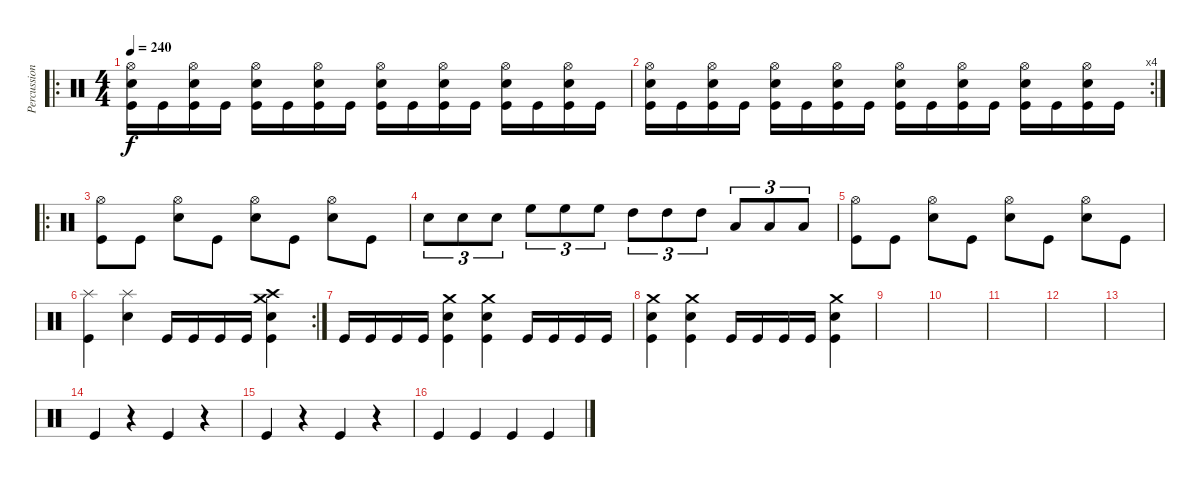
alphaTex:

\track ("Percussion" "Percussion") {instrument percussion}
\staff {score}
\articulation defaults
\ro
\ts (4 4)
\tempo 240
\clef neutral
\ks c
("Hi-Hat (open)" "Snare (hit) 2" "Kick (hit)").16{dy f} "Kick (hit)".16 ("Hi-Hat (open)" "Snare (hit) 2" "Kick (hit)").16 "Kick (hit)".16 ("Hi-Hat (open)" "Snare (hit) 2" "Kick (hit)").16 "Kick (hit)".16 ("Hi-Hat (open)" "Snare (hit) 2" "Kick (hit)").16 "Kick (hit)".16 ("Hi-Hat (open)" "Snare (hit) 2" "Kick (hit)").16 "Kick (hit)".16 ("Hi-Hat (open)" "Snare (hit) 2" "Kick (hit)").16 "Kick (hit)".16 ("Hi-Hat (open)" "Snare (hit) 2" "Kick (hit)").16 "Kick (hit)".16 ("Hi-Hat (open)" "Snare (hit) 2" "Kick (hit)").16 "Kick (hit)".16 |
\rc 4
("Hi-Hat (open)" "Snare (hit) 2" "Kick (hit)").16 "Kick (hit)".16 ("Hi-Hat (open)" "Snare (hit) 2" "Kick (hit)").16 "Kick (hit)".16 ("Hi-Hat (open)" "Snare (hit) 2" "Kick (hit)").16 "Kick (hit)".16 ("Hi-Hat (open)" "Snare (hit) 2" "Kick (hit)").16 "Kick (hit)".16 ("Hi-Hat (open)" "Snare (hit) 2" "Kick (hit)").16 "Kick (hit)".16 ("Hi-Hat (open)" "Snare (hit) 2" "Kick (hit)").16 "Kick (hit)".16 ("Hi-Hat (open)" "Snare (hit) 2" "Kick (hit)").16 "Kick (hit)".16 ("Hi-Hat (open)" "Snare (hit) 2" "Kick (hit)").16 "Kick (hit)".16 |
\ro
("Hi-Hat (open)" "Kick (hit)").8 "Kick (hit)".8 ("Hi-Hat (open)" "Snare (hit) 2").8 "Kick (hit)".8 ("Hi-Hat (open)" "Snare (hit) 2").8 "Kick (hit)".8 ("Hi-Hat (open)" "Snare (hit) 2").8 "Kick (hit)".8 |
"Snare (hit) 2".8{tu (3 2)} "Snare (hit) 2".8{tu (3 2)} "Snare (hit) 2".8{tu (3 2)} "High Floor Tom (hit)".8{tu (3 2)} "High Floor Tom (hit)".8{tu (3 2)} "High Floor Tom (hit)".8{tu (3 2)} "High Tom (hit)".8{tu (3 2)} "High Tom (hit)".8{tu (3 2)} "High Tom (hit)".8{tu (3 2)} "Low Tom (hit)".8{tu (3 2)} "Low Tom (hit)".8{tu (3 2)} "Low Tom (hit)".8{tu (3 2)} |
("Hi-Hat (open)" "Kick (hit)").8 "Kick (hit)".8 ("Hi-Hat (open)" "Snare (hit) 2").8 "Kick (hit)".8 ("Hi-Hat (open)" "Snare (hit) 2").8 "Kick (hit)".8 ("Hi-Hat (open)" "Snare (hit) 2").8 "Kick (hit)".8 |
\rc 2
("Splash (hit)" "Kick (hit)").4 ("Splash (hit)" "Snare (hit) 2").4 "Kick (hit)".16 "Kick (hit)".16 "Kick (hit)".16 "Kick (hit)".16 ("Crash medium (hit)" "Crash high (hit)" "Snare (hit) 2" "Kick (hit)").4 |
"Kick (hit)".16 "Kick (hit)".16 "Kick (hit)".16 "Kick (hit)".16 ("Crash medium (hit)" "Snare (hit) 2" "Kick (hit)").4 ("Crash medium (hit)" "Snare (hit) 2" "Kick (hit)").4 "Kick (hit)".16 "Kick (hit)".16 "Kick (hit)".16 "Kick (hit)".16 |
("Crash medium (hit)" "Snare (hit) 2" "Kick (hit)").4 ("Crash medium (hit)" "Snare (hit) 2" "Kick (hit)").4 "Kick (hit)".16 "Kick (hit)".16 "Kick (hit)".16 "Kick (hit)".16 ("Crash medium (hit)" "Snare (hit) 2" "Kick (hit)").4 |
|
|
|
|
|
"Kick (hit)".4 r.4 "Kick (hit)".4 r.4 |
"Kick (hit)".4 r.4 "Kick (hit)".4 r.4 |
"Kick (hit)".4 "Kick (hit)".4 "Kick (hit)".4 "Kick (hit)".4
